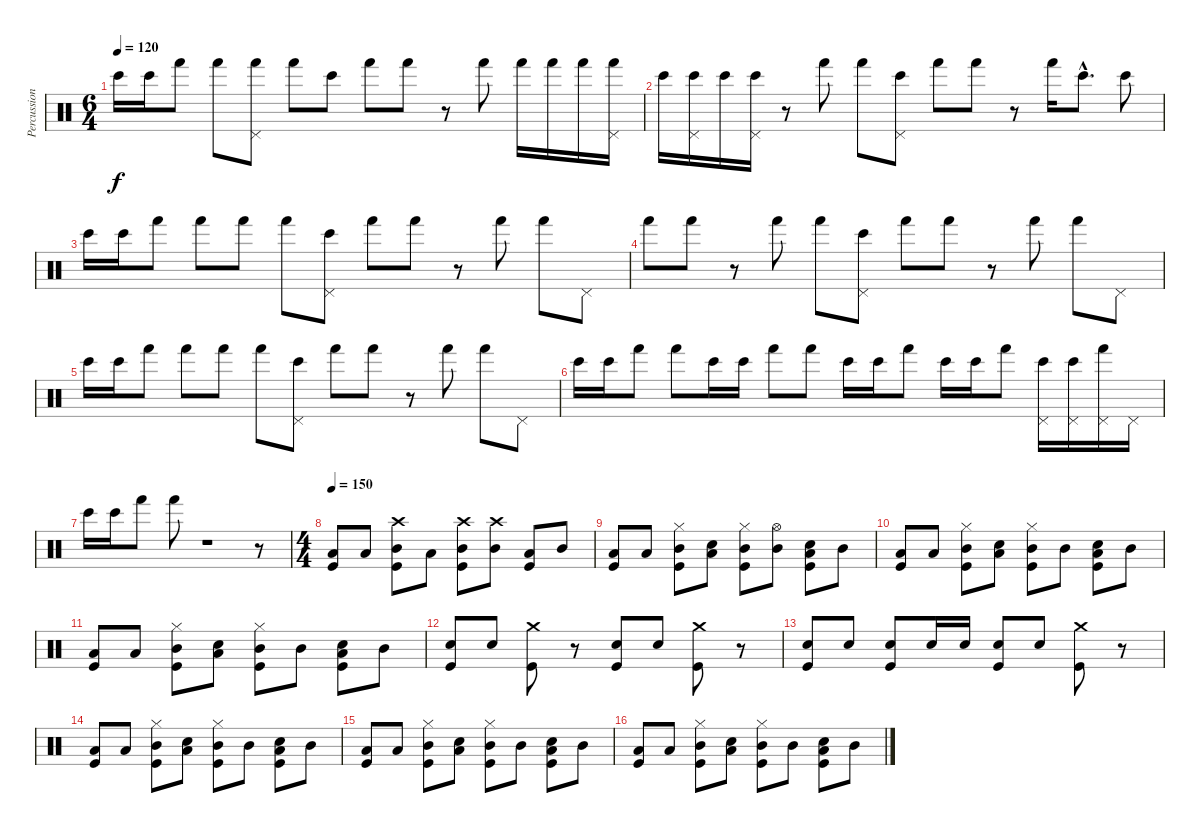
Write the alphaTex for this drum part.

\track ("Percussions" "Percussion") {instrument percussion}
\staff {score}
\articulation defaults
\ts (6 4)
\tempo 120
\clef neutral
\ks c "Bongo High (hit)".16{dy f} "Bongo High (hit)".16 "Hand (hit)".8 "Hand (hit)".8
("Hand (hit)" "Pedal Hi-Hat (hit)").8 "Hand (hit)".8 "Bongo High (hit)".8 "Hand (hit)".8 "Hand (hit)".8 r.8 "Hand (hit)".8 "Hand (hit)".16 "Hand (hit)".16 "Hand (hit)".16 ("Hand (hit)" "Pedal Hi-Hat (hit)").16 |
"Bongo High (hit)".16 ("Bongo High (hit)" "Pedal Hi-Hat (hit)").16 "Bongo High (hit)".16 ("Bongo High (hit)" "Pedal Hi-Hat (hit)").16 r.8 "Hand (hit)".8 "Hand (hit)".8 ("Bongo High (hit)" "Pedal Hi-Hat (hit)").8 "Hand (hit)".8 "Hand (hit)".8 r.8 "Hand (hit)".16 "Bongo High (hit)"{tr (24 64) hac}.8{d} "Bongo High (hit)"{tr (24 64)}.8 |
"Bongo High (hit)".16 "Bongo High (hit)".16 "Hand (hit)".8 "Hand (hit)".8 "Hand (hit)".8 "Hand (hit)".8 ("Bongo High (hit)" "Pedal Hi-Hat (hit)").8 "Hand (hit)".8 "Hand (hit)".8 r.8 "Hand (hit)".8 "Hand (hit)".8 "Pedal Hi-Hat (hit)".8 |
"Hand (hit)".8 "Hand (hit)".8 r.8 "Hand (hit)".8 "Hand (hit)".8 ("Bongo High (hit)" "Pedal Hi-Hat (hit)").8 "Hand (hit)".8 "Hand (hit)".8 r.8 "Hand (hit)".8 "Hand (hit)".8 "Pedal Hi-Hat (hit)".8 |
"Bongo High (hit)".16 "Bongo High (hit)".16 "Hand (hit)".8 "Hand (hit)".8 "Hand (hit)".8 "Hand (hit)".8 ("Bongo High (hit)" "Pedal Hi-Hat (hit)").8 "Hand (hit)".8 "Hand (hit)".8 r.8 "Hand (hit)".8 "Hand (hit)".8 "Pedal Hi-Hat (hit)".8 |
"Bongo High (hit)".16 "Bongo High (hit)".16 "Hand (hit)".8 "Hand (hit)".8 "Bongo High (hit)".16 "Bongo High (hit)".16 "Hand (hit)".8 "Hand (hit)".8 "Bongo High (hit)".16 "Bongo High (hit)".16 "Hand (hit)".8 "Bongo High (hit)".16 "Bongo High (hit)".16 "Hand (hit)".8 ("Bongo High (hit)" "Pedal Hi-Hat (hit)").16 ("Bongo High (hit)" "Pedal Hi-Hat (hit)").16 ("Hand (hit)" "Pedal Hi-Hat (hit)").16 "Pedal Hi-Hat (hit)".16 |
"Bongo High (hit)".16 "Bongo High (hit)".16 "Hand (hit)".8 "Hand (hit)".8 r.1 r.8 |
\ts (4 4)
\tempo 150
("Low Tom (hit)" "Kick (hit)").8{volume 13} "Low Tom (hit)".8 ("Mid Tom (hit)" "Crash high (hit)" "Kick (hit)").8 "Low Tom (hit)".8 ("Mid Tom (hit)" "Crash high (hit)" "Kick (hit)").8 ("Mid Tom (hit)" "Crash high (hit)").8 ("Low Tom (hit)" "Kick (hit)").8 "Mid Tom (hit)".8 |
("Low Tom (hit)" "Kick (hit)").8 "Low Tom (hit)".8 ("Mid Tom (hit)" "Hi-Hat (closed)" "Kick (hit)").8 ("Low Tom (hit)" "Electric Snare (hit)").8 ("Mid Tom (hit)" "Hi-Hat (closed)" "Kick (hit)").8 ("Mid Tom (hit)" "Hi-Hat (open)").8 ("Low Tom (hit)" "Electric Snare (hit)" "Kick (hit)").8 "Mid Tom (hit)".8 |
("Low Tom (hit)" "Kick (hit)").8 "Low Tom (hit)".8 ("Mid Tom (hit)" "Hi-Hat (closed)" "Kick (hit)").8 ("Low Tom (hit)" "Electric Snare (hit)").8 ("Mid Tom (hit)" "Hi-Hat (closed)" "Kick (hit)").8 "Mid Tom (hit)".8 ("Low Tom (hit)" "Electric Snare (hit)" "Kick (hit)").8 "Mid Tom (hit)".8 |
("Low Tom (hit)" "Kick (hit)").8 "Low Tom (hit)".8 ("Mid Tom (hit)" "Hi-Hat (closed)" "Kick (hit)").8 ("Low Tom (hit)" "Electric Snare (hit)").8 ("Mid Tom (hit)" "Hi-Hat (closed)" "Kick (hit)").8 "Mid Tom (hit)".8 ("Low Tom (hit)" "Electric Snare (hit)" "Kick (hit)").8 "Mid Tom (hit)".8 |
("Electric Snare (hit)" "Kick (hit)").8 "Electric Snare (hit)".8 ("Crash medium (hit)" "Kick (hit)").8 r.8 ("Electric Snare (hit)" "Kick (hit)").8 "Electric Snare (hit)".8 ("Crash medium (hit)" "Kick (hit)").8 r.8 |
("Electric Snare (hit)" "Kick (hit)").8 "Electric Snare (hit)".8 ("Electric Snare (hit)" "Kick (hit)").8 "Electric Snare (hit)".16 "Electric Snare (hit)".16 ("Electric Snare (hit)" "Kick (hit)").8 "Electric Snare (hit)".8 ("Crash medium (hit)" "Kick (hit)").8 r.8 |
("Low Tom (hit)" "Kick (hit)").8 "Low Tom (hit)".8 ("Mid Tom (hit)" "Hi-Hat (closed)" "Kick (hit)").8 ("Low Tom (hit)" "Electric Snare (hit)").8 ("Mid Tom (hit)" "Hi-Hat (closed)" "Kick (hit)").8 "Mid Tom (hit)".8 ("Low Tom (hit)" "Electric Snare (hit)" "Kick (hit)").8 "Mid Tom (hit)".8 |
("Low Tom (hit)" "Kick (hit)").8 "Low Tom (hit)".8 ("Mid Tom (hit)" "Hi-Hat (closed)" "Kick (hit)").8 ("Low Tom (hit)" "Electric Snare (hit)").8 ("Mid Tom (hit)" "Hi-Hat (closed)" "Kick (hit)").8 "Mid Tom (hit)".8 ("Low Tom (hit)" "Electric Snare (hit)" "Kick (hit)").8 "Mid Tom (hit)".8 |
("Low Tom (hit)" "Kick (hit)").8 "Low Tom (hit)".8 ("Mid Tom (hit)" "Hi-Hat (closed)" "Kick (hit)").8 ("Low Tom (hit)" "Electric Snare (hit)").8 ("Mid Tom (hit)" "Hi-Hat (closed)" "Kick (hit)").8 "Mid Tom (hit)".8 ("Low Tom (hit)" "Electric Snare (hit)" "Kick (hit)").8 "Mid Tom (hit)".8
